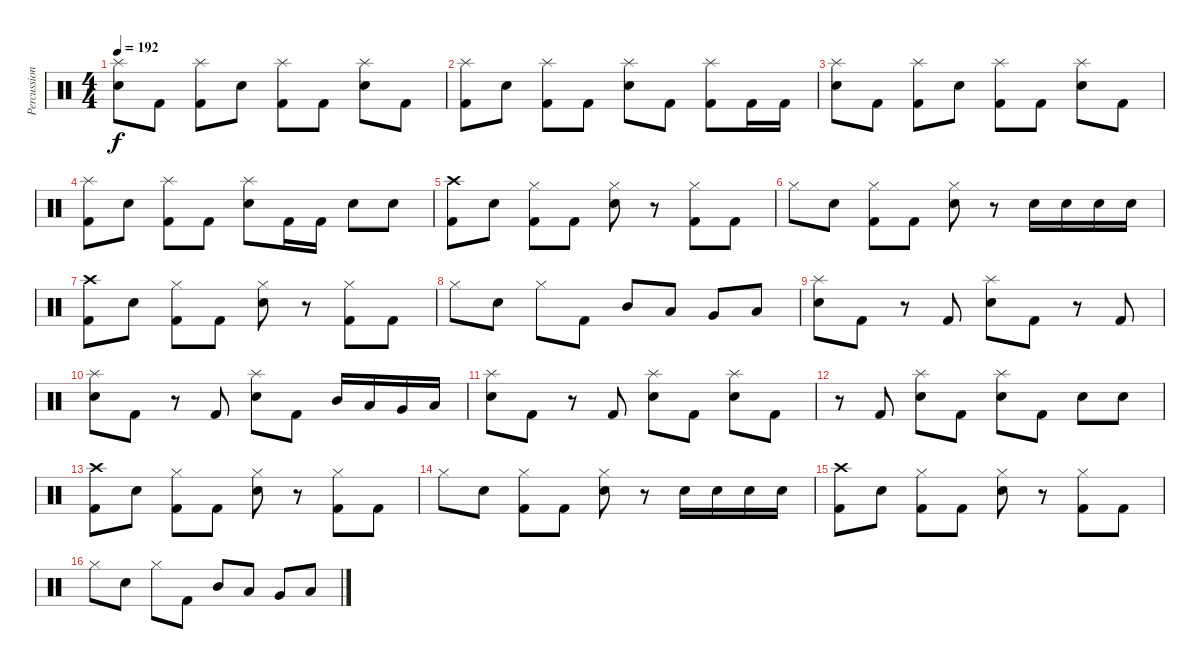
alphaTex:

\track ("Percussion" "Percussion") {instrument percussion}
\staff {score}
\articulation defaults
\ts (4 4)
\tempo 192
\clef neutral
\ks c
("Splash (hit)" "Electric Snare (hit)").8{dy f} "Kick (hit) 2".8 ("Splash (hit)" "Kick (hit) 2").8 "Electric Snare (hit)".8 ("Splash (hit)" "Kick (hit) 2").8 "Kick (hit) 2".8 ("Splash (hit)" "Electric Snare (hit)").8 "Kick (hit) 2".8 |
("Splash (hit)" "Kick (hit) 2").8 "Electric Snare (hit)".8 ("Splash (hit)" "Kick (hit) 2").8 "Kick (hit) 2".8 ("Splash (hit)" "Electric Snare (hit)").8 "Kick (hit) 2".8 ("Splash (hit)" "Kick (hit) 2").8 "Kick (hit) 2".16 "Kick (hit) 2".16 |
("Splash (hit)" "Electric Snare (hit)").8 "Kick (hit) 2".8 ("Splash (hit)" "Kick (hit) 2").8 "Electric Snare (hit)".8 ("Splash (hit)" "Kick (hit) 2").8 "Kick (hit) 2".8 ("Splash (hit)" "Electric Snare (hit)").8 "Kick (hit) 2".8 |
("Splash (hit)" "Kick (hit) 2").8 "Electric Snare (hit)".8 ("Splash (hit)" "Kick (hit) 2").8 "Kick (hit) 2".8 ("Splash (hit)" "Electric Snare (hit)").8 "Kick (hit) 2".16 "Kick (hit) 2".16 "Electric Snare (hit)".8 "Electric Snare (hit)".8 |
("Crash high (hit)" "Kick (hit) 2").8 "Electric Snare (hit)".8 ("Hi-Hat (closed)" "Kick (hit) 2").8 "Kick (hit) 2".8 ("Hi-Hat (closed)" "Electric Snare (hit)").8 r.8 ("Hi-Hat (closed)" "Kick (hit) 2").8 "Kick (hit) 2".8 |
"Hi-Hat (closed)".8 "Electric Snare (hit)".8 ("Hi-Hat (closed)" "Kick (hit) 2").8 "Kick (hit) 2".8 ("Hi-Hat (closed)" "Electric Snare (hit)").8 r.8 "Electric Snare (hit)".16 "Electric Snare (hit)".16 "Electric Snare (hit)".16 "Electric Snare (hit)".16 |
("Crash high (hit)" "Kick (hit) 2").8 "Electric Snare (hit)".8 ("Hi-Hat (closed)" "Kick (hit) 2").8 "Kick (hit) 2".8 ("Hi-Hat (closed)" "Electric Snare (hit)").8 r.8 ("Hi-Hat (closed)" "Kick (hit) 2").8 "Kick (hit) 2".8 |
"Hi-Hat (closed)".8 "Electric Snare (hit)".8 "Hi-Hat (closed)".8 "Kick (hit) 2".8 "Mid Tom (hit)".8 "Low Tom (hit)".8 "Very Low Tom (hit)".8 "Low Floor Tom (hit)".8 |
("Splash (hit)" "Electric Snare (hit)").8 "Kick (hit) 2".8 r.8 "Kick (hit) 2".8 ("Splash (hit)" "Electric Snare (hit)").8 "Kick (hit) 2".8 r.8 "Kick (hit) 2".8 |
("Splash (hit)" "Electric Snare (hit)").8 "Kick (hit) 2".8 r.8 "Kick (hit) 2".8 ("Splash (hit)" "Electric Snare (hit)").8 "Kick (hit) 2".8 "Mid Tom (hit)".16 "Low Tom (hit)".16 "Very Low Tom (hit)".16 "Low Floor Tom (hit)".16 |
("Splash (hit)" "Electric Snare (hit)").8 "Kick (hit) 2".8 r.8 "Kick (hit) 2".8 ("Splash (hit)" "Electric Snare (hit)").8 "Kick (hit) 2".8 ("Splash (hit)" "Electric Snare (hit)").8 "Kick (hit) 2".8 |
r.8 "Kick (hit) 2".8 ("Splash (hit)" "Electric Snare (hit)").8 "Kick (hit) 2".8 ("Splash (hit)" "Electric Snare (hit)").8 "Kick (hit) 2".8 "Electric Snare (hit)".8 "Electric Snare (hit)".8 |
("Crash high (hit)" "Kick (hit) 2").8 "Electric Snare (hit)".8 ("Hi-Hat (closed)" "Kick (hit) 2").8 "Kick (hit) 2".8 ("Hi-Hat (closed)" "Electric Snare (hit)").8 r.8 ("Hi-Hat (closed)" "Kick (hit) 2").8 "Kick (hit) 2".8 |
"Hi-Hat (closed)".8 "Electric Snare (hit)".8 ("Hi-Hat (closed)" "Kick (hit) 2").8 "Kick (hit) 2".8 ("Hi-Hat (closed)" "Electric Snare (hit)").8 r.8 "Electric Snare (hit)".16 "Electric Snare (hit)".16 "Electric Snare (hit)".16 "Electric Snare (hit)".16 |
("Crash high (hit)" "Kick (hit) 2").8 "Electric Snare (hit)".8 ("Hi-Hat (closed)" "Kick (hit) 2").8 "Kick (hit) 2".8 ("Hi-Hat (closed)" "Electric Snare (hit)").8 r.8 ("Hi-Hat (closed)" "Kick (hit) 2").8 "Kick (hit) 2".8 |
"Hi-Hat (closed)".8 "Electric Snare (hit)".8 "Hi-Hat (closed)".8 "Kick (hit) 2".8 "Mid Tom (hit)".8 "Low Tom (hit)".8 "Very Low Tom (hit)".8 "Low Floor Tom (hit)".8
